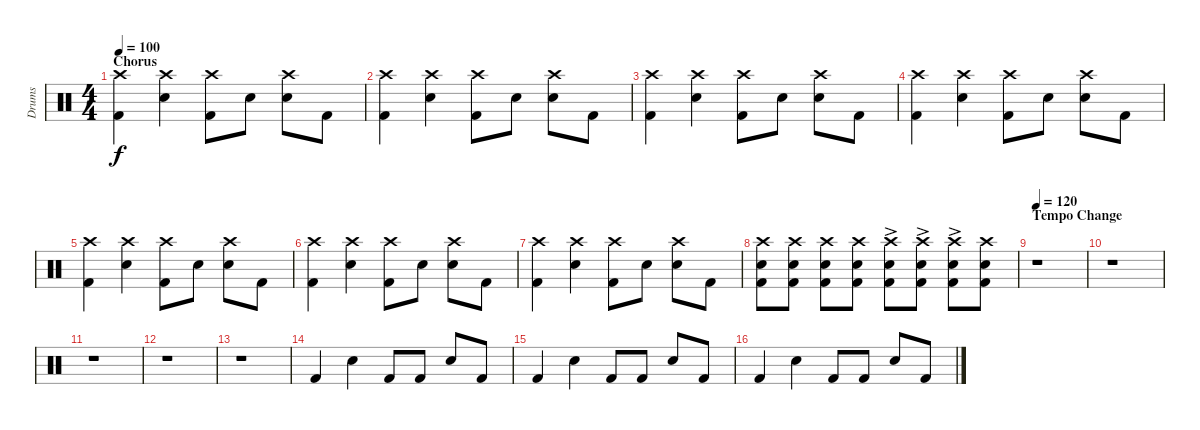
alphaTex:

\track ("Drums" "Drums") {instrument percussion}
\staff {score}
\articulation defaults
\ts (4 4)
\section ("" "Chorus")
\tempo 100
\clef neutral
\ks c
("Crash high (hit)" "Kick (hit) 2").4{dy f} ("Crash high (hit)" "Electric Snare (hit)").4 ("Crash high (hit)" "Kick (hit) 2").8 "Electric Snare (hit)".8 ("Crash high (hit)" "Electric Snare (hit)").8 "Kick (hit) 2".8 |
("Crash high (hit)" "Kick (hit) 2").4 ("Crash high (hit)" "Electric Snare (hit)").4 ("Crash high (hit)" "Kick (hit) 2").8 "Electric Snare (hit)".8 ("Crash high (hit)" "Electric Snare (hit)").8 "Kick (hit) 2".8 |
("Crash high (hit)" "Kick (hit) 2").4 ("Crash high (hit)" "Electric Snare (hit)").4 ("Crash high (hit)" "Kick (hit) 2").8 "Electric Snare (hit)".8 ("Crash high (hit)" "Electric Snare (hit)").8 "Kick (hit) 2".8 |
("Crash high (hit)" "Kick (hit) 2").4 ("Crash high (hit)" "Electric Snare (hit)").4 ("Crash high (hit)" "Kick (hit) 2").8 "Electric Snare (hit)".8 ("Crash high (hit)" "Electric Snare (hit)").8 "Kick (hit) 2".8 |
("Crash high (hit)" "Kick (hit) 2").4 ("Crash high (hit)" "Electric Snare (hit)").4 ("Crash high (hit)" "Kick (hit) 2").8 "Electric Snare (hit)".8 ("Crash high (hit)" "Electric Snare (hit)").8 "Kick (hit) 2".8 |
("Crash high (hit)" "Kick (hit) 2").4 ("Crash high (hit)" "Electric Snare (hit)").4 ("Crash high (hit)" "Kick (hit) 2").8 "Electric Snare (hit)".8 ("Crash high (hit)" "Electric Snare (hit)").8 "Kick (hit) 2".8 |
("Crash high (hit)" "Kick (hit) 2").4 ("Crash high (hit)" "Electric Snare (hit)").4 ("Crash high (hit)" "Kick (hit) 2").8 "Electric Snare (hit)".8 ("Crash high (hit)" "Electric Snare (hit)").8 "Kick (hit) 2".8 |
("Crash high (hit)" "Electric Snare (hit)" "Kick (hit) 2").8 ("Crash high (hit)" "Electric Snare (hit)" "Kick (hit) 2").8 ("Crash high (hit)" "Electric Snare (hit)" "Kick (hit) 2").8 ("Crash high (hit)" "Electric Snare (hit)" "Kick (hit) 2").8 ("Crash high (hit)"{ac} "Electric Snare (hit)"{ac} "Kick (hit) 2"{ac}).8 ("Crash high (hit)"{ac} "Electric Snare (hit)"{ac} "Kick (hit) 2"{ac}).8 ("Crash high (hit)"{ac} "Electric Snare (hit)"{ac} "Kick (hit) 2"{ac}).8 ("Crash high (hit)" "Electric Snare (hit)" "Kick (hit) 2").8 |
\section ("" "Tempo Change")
\tempo 120
r.1 |
r.1 |
r.1 |
r.1 |
r.1 |
"Kick (hit) 2".4 "Electric Snare (hit)".4 "Kick (hit) 2".8 "Kick (hit) 2".8 "Electric Snare (hit)".8 "Kick (hit) 2".8 |
"Kick (hit) 2".4 "Electric Snare (hit)".4 "Kick (hit) 2".8 "Kick (hit) 2".8 "Electric Snare (hit)".8 "Kick (hit) 2".8 |
"Kick (hit) 2".4 "Electric Snare (hit)".4 "Kick (hit) 2".8 "Kick (hit) 2".8 "Electric Snare (hit)".8 "Kick (hit) 2".8
